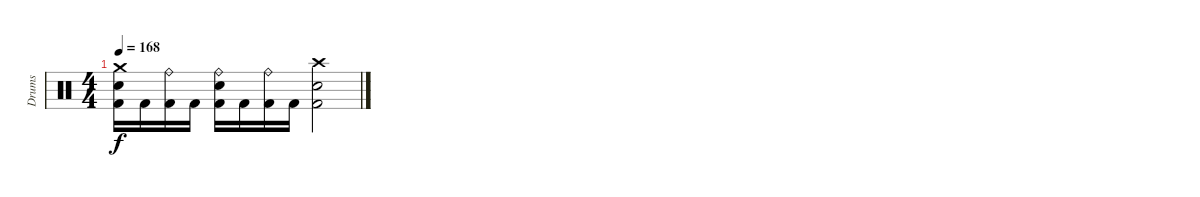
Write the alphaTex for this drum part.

\track ("Drums" "Drums") {instrument percussion}
\staff {score}
\articulation defaults
\ts (4 4)
\tempo 168
\clef neutral
\ks c
("Kick (hit) 2" "Snare (hit) 2" "Crash medium (hit)").16{dy f} "Kick (hit) 2".16 ("Kick (hit) 2" "Ride (bell)").16 "Kick (hit) 2".16 ("Kick (hit) 2" "Snare (hit) 2" "Ride (bell)").16 "Kick (hit) 2".16 ("Kick (hit) 2" "Ride (bell)").16 "Kick (hit) 2".16 ("Kick (hit) 2" "Snare (hit) 2" "Crash high (hit)").2
